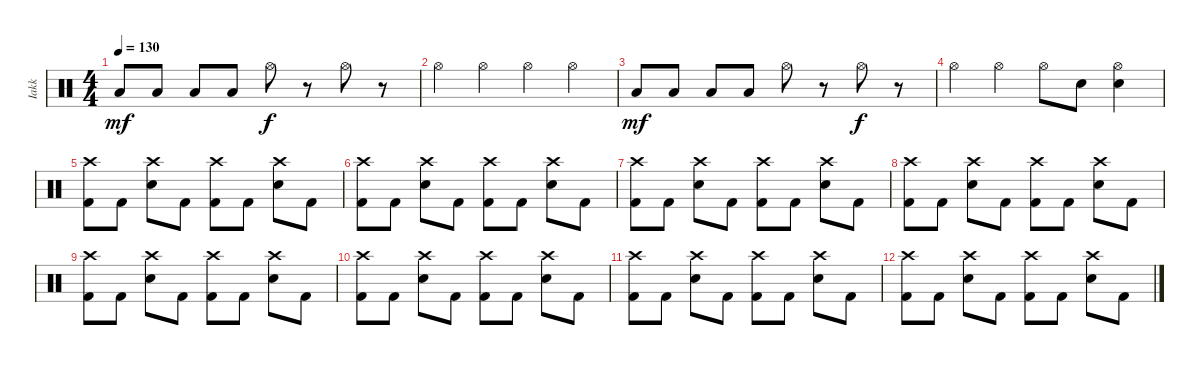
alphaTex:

\track ("Iakk" "Iakk") {instrument percussion}
\staff {score}
\articulation defaults
\ts (4 4)
\tempo 130
\clef neutral
\ks c "Low Tom (hit)".8{dy mf} "Low Tom (hit)".8 "Low Tom (hit)".8 "Low Tom (hit)".8 "Hi-Hat (open)".8{dy f}
r.8 "Hi-Hat (open)".8 r.8 |
"Hi-Hat (open)".4 "Hi-Hat (open)".4 "Hi-Hat (open)".4 "Hi-Hat (open)".4 |
"Low Tom (hit)".8{dy mf} "Low Tom (hit)".8 "Low Tom (hit)".8 "Low Tom (hit)".8 "Hi-Hat (open)".8 r.8 "Hi-Hat (open)".8{dy f} r.8 |
"Hi-Hat (open)".4 "Hi-Hat (open)".4 "Hi-Hat (open)".8 "Electric Snare (hit)".8 ("Electric Snare (hit)" "Hi-Hat (open)").4 |
("Crash high (hit)" "Kick (hit) 2").8 "Kick (hit) 2".8 ("Crash high (hit)" "Electric Snare (hit)").8 "Kick (hit) 2".8 ("Crash high (hit)" "Kick (hit) 2").8 "Kick (hit) 2".8 ("Crash high (hit)" "Electric Snare (hit)").8 "Kick (hit) 2".8 |
("Crash high (hit)" "Kick (hit) 2").8 "Kick (hit) 2".8 ("Crash high (hit)" "Electric Snare (hit)").8 "Kick (hit) 2".8 ("Crash high (hit)" "Kick (hit) 2").8 "Kick (hit) 2".8 ("Crash high (hit)" "Electric Snare (hit)").8 "Kick (hit) 2".8 |
("Crash high (hit)" "Kick (hit) 2").8 "Kick (hit) 2".8 ("Crash high (hit)" "Electric Snare (hit)").8 "Kick (hit) 2".8 ("Crash high (hit)" "Kick (hit) 2").8 "Kick (hit) 2".8 ("Crash high (hit)" "Electric Snare (hit)").8 "Kick (hit) 2".8 |
("Crash high (hit)" "Kick (hit) 2").8 "Kick (hit) 2".8 ("Crash high (hit)" "Electric Snare (hit)").8 "Kick (hit) 2".8 ("Crash high (hit)" "Kick (hit) 2").8 "Kick (hit) 2".8 ("Crash high (hit)" "Electric Snare (hit)").8 "Kick (hit) 2".8 |
("Crash high (hit)" "Kick (hit) 2").8 "Kick (hit) 2".8 ("Crash high (hit)" "Electric Snare (hit)").8 "Kick (hit) 2".8 ("Crash high (hit)" "Kick (hit) 2").8 "Kick (hit) 2".8 ("Crash high (hit)" "Electric Snare (hit)").8 "Kick (hit) 2".8 |
("Crash high (hit)" "Kick (hit) 2").8 "Kick (hit) 2".8 ("Crash high (hit)" "Electric Snare (hit)").8 "Kick (hit) 2".8 ("Crash high (hit)" "Kick (hit) 2").8 "Kick (hit) 2".8 ("Crash high (hit)" "Electric Snare (hit)").8 "Kick (hit) 2".8 |
("Crash high (hit)" "Kick (hit) 2").8 "Kick (hit) 2".8 ("Crash high (hit)" "Electric Snare (hit)").8 "Kick (hit) 2".8 ("Crash high (hit)" "Kick (hit) 2").8 "Kick (hit) 2".8 ("Crash high (hit)" "Electric Snare (hit)").8 "Kick (hit) 2".8 |
("Crash high (hit)" "Kick (hit) 2").8 "Kick (hit) 2".8 ("Crash high (hit)" "Electric Snare (hit)").8 "Kick (hit) 2".8 ("Crash high (hit)" "Kick (hit) 2").8 "Kick (hit) 2".8 ("Crash high (hit)" "Electric Snare (hit)").8 "Kick (hit) 2".8
